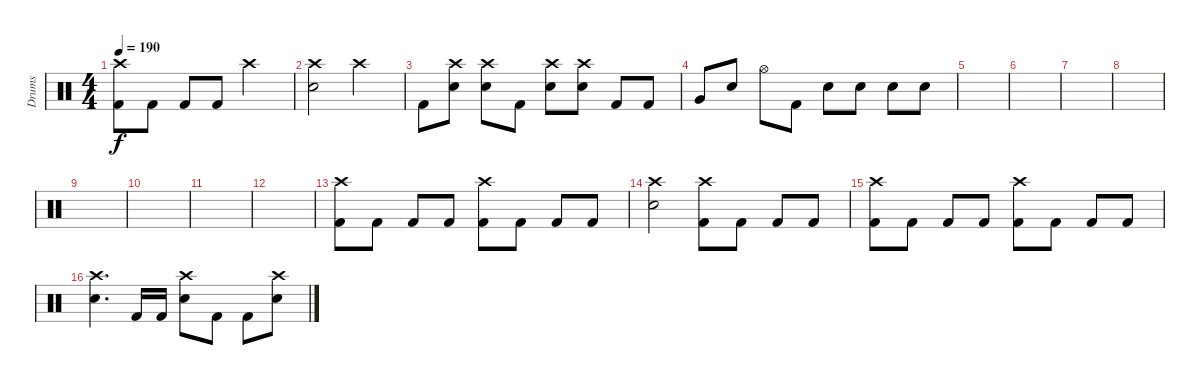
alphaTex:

\track ("Drums" "Drums") {instrument percussion}
\staff {score}
\articulation defaults
\ts (4 4)
\tempo 190
\clef neutral
\ks c
("Crash high (hit)" "Kick (hit) 2").8{dy f} "Kick (hit) 2".8 "Kick (hit) 2".8 "Kick (hit) 2".8 "Crash high (hit)".2 |
("Crash high (hit)" "Electric Snare (hit)").2 "Crash high (hit)".2 |
"Kick (hit) 2".8 ("Crash high (hit)" "Electric Snare (hit)").8 ("Crash high (hit)" "Electric Snare (hit)").8 "Kick (hit) 2".8 ("Crash high (hit)" "Electric Snare (hit)").8 ("Crash high (hit)" "Electric Snare (hit)").8 "Kick (hit) 2".8 "Kick (hit) 2".8 |
"Very Low Tom (hit)".8 "Electric Snare (hit)".8 "Hi-Hat (open)".8 "Kick (hit) 2".8 "Electric Snare (hit)".8 "Electric Snare (hit)".8 "Electric Snare (hit)".8 "Electric Snare (hit)".8 |
|
|
|
|
|
|
|
|
("Crash high (hit)" "Kick (hit) 2").8 "Kick (hit) 2".8 "Kick (hit) 2".8 "Kick (hit) 2".8 ("Crash high (hit)" "Kick (hit) 2").8 "Kick (hit) 2".8 "Kick (hit) 2".8 "Kick (hit) 2".8 |
("Crash high (hit)" "Electric Snare (hit)").2 ("Crash high (hit)" "Kick (hit) 2").8 "Kick (hit) 2".8 "Kick (hit) 2".8 "Kick (hit) 2".8 |
("Crash high (hit)" "Kick (hit) 2").8 "Kick (hit) 2".8 "Kick (hit) 2".8 "Kick (hit) 2".8 ("Crash high (hit)" "Kick (hit) 2").8 "Kick (hit) 2".8 "Kick (hit) 2".8 "Kick (hit) 2".8 |
("Crash high (hit)" "Electric Snare (hit)").4{d} "Kick (hit) 2".16 "Kick (hit) 2".16 ("Crash high (hit)" "Electric Snare (hit)").8 "Kick (hit) 2".8 "Kick (hit) 2".8 ("Crash high (hit)" "Electric Snare (hit)").8
